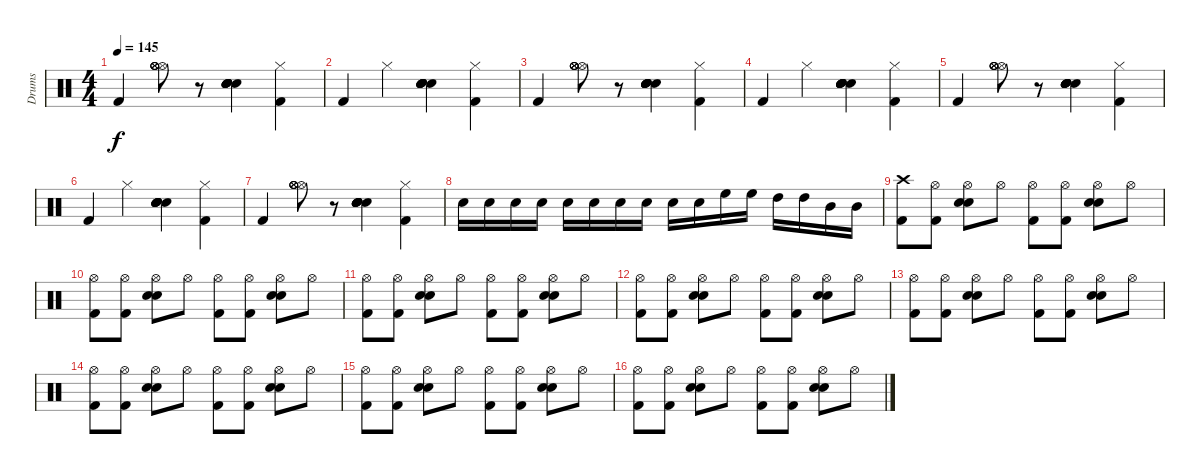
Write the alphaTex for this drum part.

\track ("Drums" "Drums") {instrument percussion}
\staff {score}
\articulation defaults
\ts (4 4)
\tempo 145
\clef neutral
\ks c "Kick (hit) 2".4{dy f}
("Hi-Hat (open)" "Hi-Hat (open)" "Hi-Hat (open)" "Hi-Hat (open)" "Hi-Hat (open)").8 r.8 ("Electric Snare (hit)" "Snare (hit) 2" "Snare (hit) 2" "Snare (hit) 2" "Snare (hit) 2" "Snare (hit) 2").4 ("Kick (hit) 2" "Hi-Hat (closed)").4 |
"Kick (hit) 2".4 "Hi-Hat (closed)".4 ("Electric Snare (hit)" "Snare (hit) 2" "Snare (hit) 2" "Snare (hit) 2" "Snare (hit) 2" "Snare (hit) 2").4 ("Kick (hit) 2" "Hi-Hat (closed)").4 |
"Kick (hit) 2".4 ("Hi-Hat (open)" "Hi-Hat (open)" "Hi-Hat (open)" "Hi-Hat (open)" "Hi-Hat (open)").8 r.8 ("Electric Snare (hit)" "Snare (hit) 2" "Snare (hit) 2" "Snare (hit) 2" "Snare (hit) 2" "Snare (hit) 2").4 ("Kick (hit) 2" "Hi-Hat (closed)").4 |
"Kick (hit) 2".4 "Hi-Hat (closed)".4 ("Electric Snare (hit)" "Snare (hit) 2" "Snare (hit) 2" "Snare (hit) 2" "Snare (hit) 2" "Snare (hit) 2").4 ("Kick (hit) 2" "Hi-Hat (closed)").4 |
"Kick (hit) 2".4 ("Hi-Hat (open)" "Hi-Hat (open)" "Hi-Hat (open)" "Hi-Hat (open)" "Hi-Hat (open)").8 r.8 ("Electric Snare (hit)" "Snare (hit) 2" "Snare (hit) 2" "Snare (hit) 2" "Snare (hit) 2" "Snare (hit) 2").4 ("Kick (hit) 2" "Hi-Hat (closed)").4 |
"Kick (hit) 2".4 "Hi-Hat (closed)".4 ("Electric Snare (hit)" "Snare (hit) 2" "Snare (hit) 2" "Snare (hit) 2" "Snare (hit) 2" "Snare (hit) 2").4 ("Kick (hit) 2" "Hi-Hat (closed)").4 |
"Kick (hit) 2".4 ("Hi-Hat (open)" "Hi-Hat (open)" "Hi-Hat (open)" "Hi-Hat (open)" "Hi-Hat (open)").8 r.8 ("Electric Snare (hit)" "Snare (hit) 2" "Snare (hit) 2" "Snare (hit) 2" "Snare (hit) 2" "Snare (hit) 2").4 ("Kick (hit) 2" "Hi-Hat (closed)").4{volume 8} |
"Electric Snare (hit)".16{volume 16} "Electric Snare (hit)".16 "Electric Snare (hit)".16 "Electric Snare (hit)".16 "Electric Snare (hit)".16 "Electric Snare (hit)".16 "Electric Snare (hit)".16 "Electric Snare (hit)".16 "Electric Snare (hit)".16 "Electric Snare (hit)".16 "High Floor Tom (hit)".16 "High Floor Tom (hit)".16 "High Tom (hit)".16 "High Tom (hit)".16 "Mid Tom (hit)".16 "Mid Tom (hit)".16 |
("Crash high (hit)" "Kick (hit) 2").8 ("Hi-Hat (open)" "Kick (hit) 2").8 ("Hi-Hat (open)" "Electric Snare (hit)" "Snare (hit) 2").8 "Hi-Hat (open)".8 ("Hi-Hat (open)" "Kick (hit) 2").8 ("Hi-Hat (open)" "Kick (hit) 2").8 ("Hi-Hat (open)" "Electric Snare (hit)" "Snare (hit) 2").8 "Hi-Hat (open)".8 |
("Hi-Hat (open)" "Kick (hit) 2").8 ("Hi-Hat (open)" "Kick (hit) 2").8 ("Hi-Hat (open)" "Electric Snare (hit)" "Snare (hit) 2").8 "Hi-Hat (open)".8 ("Hi-Hat (open)" "Kick (hit) 2").8 ("Hi-Hat (open)" "Kick (hit) 2").8 ("Hi-Hat (open)" "Electric Snare (hit)" "Snare (hit) 2").8 "Hi-Hat (open)".8 |
("Hi-Hat (open)" "Kick (hit) 2").8 ("Hi-Hat (open)" "Kick (hit) 2").8 ("Hi-Hat (open)" "Electric Snare (hit)" "Snare (hit) 2").8 "Hi-Hat (open)".8 ("Hi-Hat (open)" "Kick (hit) 2").8 ("Hi-Hat (open)" "Kick (hit) 2").8 ("Hi-Hat (open)" "Electric Snare (hit)" "Snare (hit) 2").8 "Hi-Hat (open)".8 |
("Hi-Hat (open)" "Kick (hit) 2").8 ("Hi-Hat (open)" "Kick (hit) 2").8 ("Hi-Hat (open)" "Electric Snare (hit)" "Snare (hit) 2").8 "Hi-Hat (open)".8 ("Hi-Hat (open)" "Kick (hit) 2").8 ("Hi-Hat (open)" "Kick (hit) 2").8 ("Hi-Hat (open)" "Electric Snare (hit)" "Snare (hit) 2").8 "Hi-Hat (open)".8 |
("Hi-Hat (open)" "Kick (hit) 2").8 ("Hi-Hat (open)" "Kick (hit) 2").8 ("Hi-Hat (open)" "Electric Snare (hit)" "Snare (hit) 2").8 "Hi-Hat (open)".8 ("Hi-Hat (open)" "Kick (hit) 2").8 ("Hi-Hat (open)" "Kick (hit) 2").8 ("Hi-Hat (open)" "Electric Snare (hit)" "Snare (hit) 2").8 "Hi-Hat (open)".8 |
("Hi-Hat (open)" "Kick (hit) 2").8 ("Hi-Hat (open)" "Kick (hit) 2").8 ("Hi-Hat (open)" "Electric Snare (hit)" "Snare (hit) 2").8 "Hi-Hat (open)".8 ("Hi-Hat (open)" "Kick (hit) 2").8 ("Hi-Hat (open)" "Kick (hit) 2").8 ("Hi-Hat (open)" "Electric Snare (hit)" "Snare (hit) 2").8 "Hi-Hat (open)".8 |
("Hi-Hat (open)" "Kick (hit) 2").8 ("Hi-Hat (open)" "Kick (hit) 2").8 ("Hi-Hat (open)" "Electric Snare (hit)" "Snare (hit) 2").8 "Hi-Hat (open)".8 ("Hi-Hat (open)" "Kick (hit) 2").8 ("Hi-Hat (open)" "Kick (hit) 2").8 ("Hi-Hat (open)" "Electric Snare (hit)" "Snare (hit) 2").8 "Hi-Hat (open)".8 |
("Hi-Hat (open)" "Kick (hit) 2").8 ("Hi-Hat (open)" "Kick (hit) 2").8 ("Hi-Hat (open)" "Electric Snare (hit)" "Snare (hit) 2").8 "Hi-Hat (open)".8 ("Hi-Hat (open)" "Kick (hit) 2").8 ("Hi-Hat (open)" "Kick (hit) 2").8 ("Hi-Hat (open)" "Electric Snare (hit)" "Snare (hit) 2").8 "Hi-Hat (open)".8
